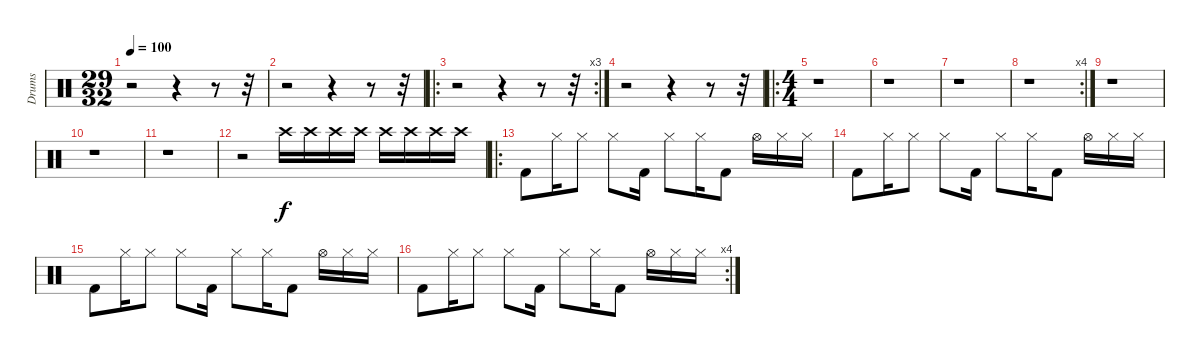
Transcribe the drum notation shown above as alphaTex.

\track ("Drums" "Drums") {instrument percussion}
\staff {score}
\articulation defaults
\ts (29 32)
\tempo 100
\clef neutral
\ks c
r.2{dy f} r.4 r.8 r.32 |
r.2 r.4 r.8 r.32 |
\ro
\rc 3
r.2 r.4 r.8 r.32 |
r.2 r.4 r.8 r.32 |
\ro
\ts (4 4)
r.1 |
r.1 |
r.1 |
\rc 4
r.1 |
r.1 |
r.1 |
r.1 |
r.2 "Crash high (hit)".16 "Crash high (hit)".16 "Crash high (hit)".16 "Crash high (hit)".16 "Crash high (hit)".16 "Crash high (hit)".16 "Crash high (hit)".16 "Crash high (hit)".16 |
\ro "Kick (hit) 2".8 "Hi-Hat (closed)".16 "Hi-Hat (closed)".8 "Hi-Hat (closed)".8 "Kick (hit) 2".16 "Hi-Hat (closed)".8 "Hi-Hat (closed)".16 "Kick (hit) 2".8 "Hi-Hat (open)".16 "Hi-Hat (closed)".16 "Hi-Hat (closed)".16
|
"Kick (hit) 2".8 "Hi-Hat (closed)".16 "Hi-Hat (closed)".8 "Hi-Hat (closed)".8 "Kick (hit) 2".16 "Hi-Hat (closed)".8 "Hi-Hat (closed)".16 "Kick (hit) 2".8 "Hi-Hat (open)".16 "Hi-Hat (closed)".16 "Hi-Hat (closed)".16 |
"Kick (hit) 2".8 "Hi-Hat (closed)".16 "Hi-Hat (closed)".8 "Hi-Hat (closed)".8 "Kick (hit) 2".16 "Hi-Hat (closed)".8 "Hi-Hat (closed)".16 "Kick (hit) 2".8 "Hi-Hat (open)".16 "Hi-Hat (closed)".16 "Hi-Hat (closed)".16 |
\rc 4 "Kick (hit) 2".8 "Hi-Hat (closed)".16 "Hi-Hat (closed)".8 "Hi-Hat (closed)".8 "Kick (hit) 2".16 "Hi-Hat (closed)".8 "Hi-Hat (closed)".16 "Kick (hit) 2".8 "Hi-Hat (open)".16 "Hi-Hat (closed)".16 "Hi-Hat (closed)".16
